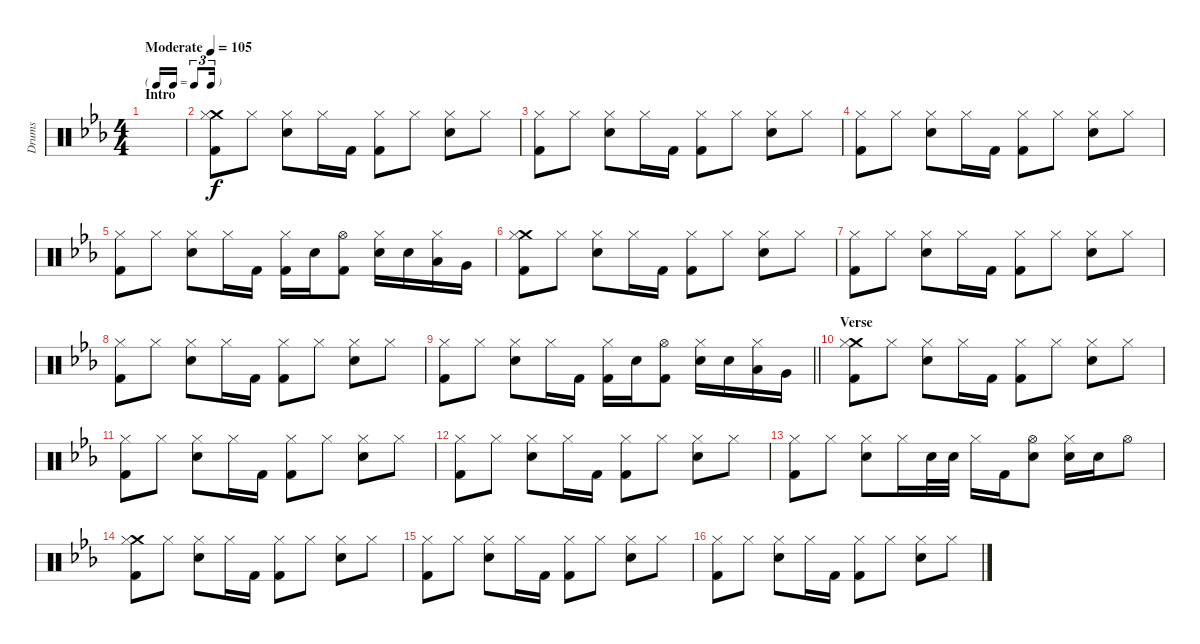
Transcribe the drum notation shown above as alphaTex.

\track ("Drums" "Drums") {instrument percussion}
\staff {score}
\articulation defaults
\ts (4 4)
\tf triplet16th
\section ("" "Intro")
\tempo (105 "Moderate")
\clef neutral
\ks eb
|
("Crash medium (hit)" "Hi-Hat (closed)" "Kick (hit) 2").8 "Hi-Hat (closed)".8 ("Hi-Hat (closed)" "Snare (hit) 2").8 "Hi-Hat (closed)".16 "Kick (hit) 2".16 ("Hi-Hat (closed)" "Kick (hit) 2").8 "Hi-Hat (closed)".8 ("Hi-Hat (closed)" "Snare (hit) 2").8 "Hi-Hat (closed)".8 |
("Hi-Hat (closed)" "Kick (hit) 2").8 "Hi-Hat (closed)".8 ("Hi-Hat (closed)" "Snare (hit) 2").8 "Hi-Hat (closed)".16 "Kick (hit) 2".16 ("Hi-Hat (closed)" "Kick (hit) 2").8 "Hi-Hat (closed)".8 ("Hi-Hat (closed)" "Snare (hit) 2").8 "Hi-Hat (closed)".8 |
("Hi-Hat (closed)" "Kick (hit) 2").8 "Hi-Hat (closed)".8 ("Hi-Hat (closed)" "Snare (hit) 2").8 "Hi-Hat (closed)".16 "Kick (hit) 2".16 ("Hi-Hat (closed)" "Kick (hit) 2").8 "Hi-Hat (closed)".8 ("Hi-Hat (closed)" "Snare (hit) 2").8 "Hi-Hat (closed)".8 |
("Hi-Hat (closed)" "Kick (hit) 2").8 "Hi-Hat (closed)".8 ("Hi-Hat (closed)" "Snare (hit) 2").8 "Hi-Hat (closed)".16 "Kick (hit) 2".16 ("Hi-Hat (closed)" "Kick (hit) 2").16 "Snare (hit) 2".16 ("Hi-Hat (open)" "Kick (hit) 2").8 ("Hi-Hat (closed)" "Snare (hit) 2").16 "Snare (hit) 2".16 ("Hi-Hat (closed)" "Low Tom (hit)").16 "Very Low Tom (hit)".16 |
("Crash medium (hit)" "Hi-Hat (closed)" "Kick (hit) 2").8 "Hi-Hat (closed)".8 ("Hi-Hat (closed)" "Snare (hit) 2").8 "Hi-Hat (closed)".16 "Kick (hit) 2".16 ("Hi-Hat (closed)" "Kick (hit) 2").8 "Hi-Hat (closed)".8 ("Hi-Hat (closed)" "Snare (hit) 2").8 "Hi-Hat (closed)".8 |
("Hi-Hat (closed)" "Kick (hit) 2").8 "Hi-Hat (closed)".8 ("Hi-Hat (closed)" "Snare (hit) 2").8 "Hi-Hat (closed)".16 "Kick (hit) 2".16 ("Hi-Hat (closed)" "Kick (hit) 2").8 "Hi-Hat (closed)".8 ("Hi-Hat (closed)" "Snare (hit) 2").8 "Hi-Hat (closed)".8 |
("Hi-Hat (closed)" "Kick (hit) 2").8 "Hi-Hat (closed)".8 ("Hi-Hat (closed)" "Snare (hit) 2").8 "Hi-Hat (closed)".16 "Kick (hit) 2".16 ("Hi-Hat (closed)" "Kick (hit) 2").8 "Hi-Hat (closed)".8 ("Hi-Hat (closed)" "Snare (hit) 2").8 "Hi-Hat (closed)".8 |
\barLineRight lightlight
("Hi-Hat (closed)" "Kick (hit) 2").8 "Hi-Hat (closed)".8 ("Hi-Hat (closed)" "Snare (hit) 2").8 "Hi-Hat (closed)".16 "Kick (hit) 2".16 ("Hi-Hat (closed)" "Kick (hit) 2").16 "Snare (hit) 2".16 ("Hi-Hat (open)" "Kick (hit) 2").8 ("Hi-Hat (closed)" "Snare (hit) 2").16 "Snare (hit) 2".16 ("Hi-Hat (closed)" "Low Tom (hit)").16 "Very Low Tom (hit)".16 |
\section ("" "Verse")
("Crash medium (hit)" "Hi-Hat (closed)" "Kick (hit) 2").8 "Hi-Hat (closed)".8 ("Hi-Hat (closed)" "Snare (hit) 2").8 "Hi-Hat (closed)".16 "Kick (hit) 2".16 ("Hi-Hat (closed)" "Kick (hit) 2").8 "Hi-Hat (closed)".8 ("Hi-Hat (closed)" "Snare (hit) 2").8 "Hi-Hat (closed)".8 |
("Hi-Hat (closed)" "Kick (hit) 2").8 "Hi-Hat (closed)".8 ("Hi-Hat (closed)" "Snare (hit) 2").8 "Hi-Hat (closed)".16 "Kick (hit) 2".16 ("Hi-Hat (closed)" "Kick (hit) 2").8 "Hi-Hat (closed)".8 ("Hi-Hat (closed)" "Snare (hit) 2").8 "Hi-Hat (closed)".8 |
("Hi-Hat (closed)" "Kick (hit) 2").8 "Hi-Hat (closed)".8 ("Hi-Hat (closed)" "Snare (hit) 2").8 "Hi-Hat (closed)".16 "Kick (hit) 2".16 ("Hi-Hat (closed)" "Kick (hit) 2").8 "Hi-Hat (closed)".8 ("Hi-Hat (closed)" "Snare (hit) 2").8 "Hi-Hat (closed)".8 |
("Hi-Hat (closed)" "Kick (hit) 2").8 "Hi-Hat (closed)".8 ("Hi-Hat (closed)" "Snare (hit) 2").8 "Hi-Hat (closed)".16 "Snare (hit) 2".32 "Snare (hit) 2".32 "Hi-Hat (closed)".16 "Kick (hit) 2".16 ("Hi-Hat (open)" "Snare (hit) 2").8 ("Hi-Hat (closed)" "Snare (hit) 2").16 "Snare (hit) 2".16 "Hi-Hat (open)".8 |
("Crash medium (hit)" "Hi-Hat (closed)" "Kick (hit) 2").8 "Hi-Hat (closed)".8 ("Hi-Hat (closed)" "Snare (hit) 2").8 "Hi-Hat (closed)".16 "Kick (hit) 2".16 ("Hi-Hat (closed)" "Kick (hit) 2").8 "Hi-Hat (closed)".8 ("Hi-Hat (closed)" "Snare (hit) 2").8 "Hi-Hat (closed)".8 |
("Hi-Hat (closed)" "Kick (hit) 2").8 "Hi-Hat (closed)".8 ("Hi-Hat (closed)" "Snare (hit) 2").8 "Hi-Hat (closed)".16 "Kick (hit) 2".16 ("Hi-Hat (closed)" "Kick (hit) 2").8 "Hi-Hat (closed)".8 ("Hi-Hat (closed)" "Snare (hit) 2").8 "Hi-Hat (closed)".8 |
("Hi-Hat (closed)" "Kick (hit) 2").8 "Hi-Hat (closed)".8 ("Hi-Hat (closed)" "Snare (hit) 2").8 "Hi-Hat (closed)".16 "Kick (hit) 2".16 ("Hi-Hat (closed)" "Kick (hit) 2").8 "Hi-Hat (closed)".8 ("Hi-Hat (closed)" "Snare (hit) 2").8 "Hi-Hat (closed)".8
